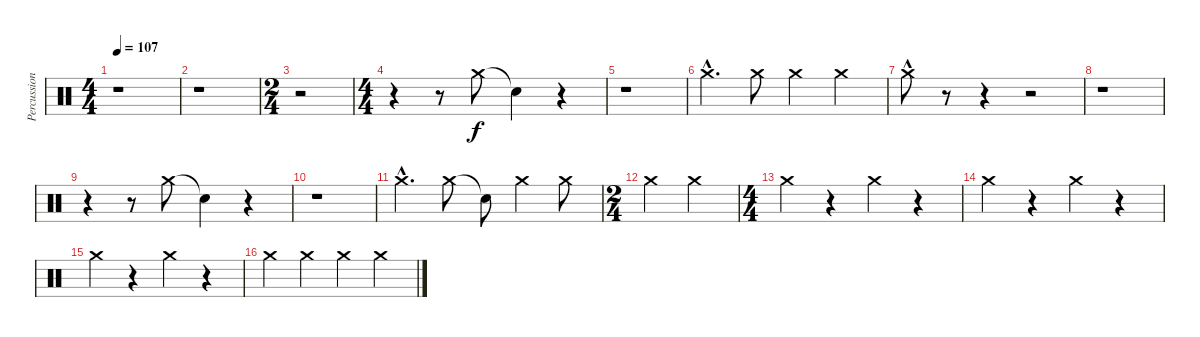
\track ("Percussion" "Percussion") {instrument percussion}
\staff {score}
\articulation defaults
\ts (4 4)
\tempo 107
\clef neutral
\ks c
r.1{dy f} |
r.1 |
\ts (2 4)
r.2 |
\ts (4 4)
r.4 r.8 "Crash medium (hit)".8 "Snare (hit)"{t}.4 r.4 |
r.1 |
"Crash medium (hit)"{hac}.4{d} "Crash medium (hit)".8 "Crash medium (hit)".4 "Crash medium (hit)".4 |
"Crash medium (hit)"{hac}.8 r.8 r.4 r.2 |
r.1 |
r.4 r.8 "Crash medium (hit)".8 "Snare (hit)"{t}.4 r.4 |
r.1 |
"Crash medium (hit)"{hac}.4{d} "Crash medium (hit)".8 "Snare (hit)"{t}.8 "Crash medium (hit)".4 "Crash medium (hit)".8 |
\ts (2 4)
"Crash medium (hit)".4 "Crash medium (hit)".4 |
\ts (4 4)
"Crash medium (hit)".4 r.4 "Crash medium (hit)".4 r.4 |
"Crash medium (hit)".4 r.4 "Crash medium (hit)".4 r.4 |
"Crash medium (hit)".4 r.4 "Crash medium (hit)".4 r.4 |
"Crash medium (hit)".4 "Crash medium (hit)".4 "Crash medium (hit)".4 "Crash medium (hit)".4
